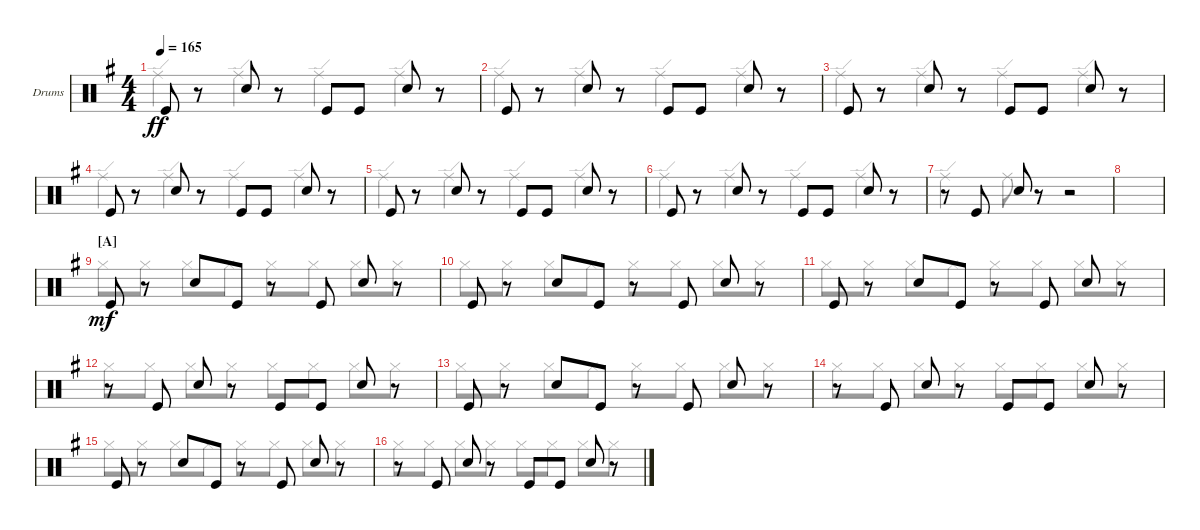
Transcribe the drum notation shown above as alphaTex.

\defaultSystemsLayout 4
\bracketExtendMode groupsimilarinstruments
\firstSystemTrackNameOrientation horizontal
\otherSystemsTrackNameOrientation horizontal
\track ("Fabrizio Moretti" "Drums") {instrument percussion}
\staff {score}
\articulation defaults
\voice
\ts (4 4)
\tempo 165
\clef neutral
\ks g "Kick (hit)".8{dy ff}
r.8 "Snare (hit) 2".8 r.8 "Kick (hit)".8 "Kick (hit)".8 "Snare (hit) 2".8 r.8 |
"Kick (hit)".8 r.8 "Snare (hit) 2".8 r.8 "Kick (hit)".8 "Kick (hit)".8 "Snare (hit) 2".8 r.8 |
"Kick (hit)".8 r.8 "Snare (hit) 2".8 r.8 "Kick (hit)".8 "Kick (hit)".8 "Snare (hit) 2".8 r.8 |
"Kick (hit)".8 r.8 "Snare (hit) 2".8 r.8 "Kick (hit)".8 "Kick (hit)".8 "Snare (hit) 2".8 r.8 |
"Kick (hit)".8 r.8 "Snare (hit) 2".8 r.8 "Kick (hit)".8 "Kick (hit)".8 "Snare (hit) 2".8 r.8 |
"Kick (hit)".8 r.8 "Snare (hit) 2".8 r.8 "Kick (hit)".8 "Kick (hit)".8 "Snare (hit) 2".8 r.8 |
r.8 "Kick (hit)".8 "Snare (hit) 2".8 r.8 r.2 |
|
\section ("A" "")
"Kick (hit)".8{dy mf} r.8 "Snare (hit) 2".8 "Kick (hit)".8 r.8 "Kick (hit)".8 "Snare (hit) 2".8 r.8 |
"Kick (hit)".8 r.8 "Snare (hit) 2".8 "Kick (hit)".8 r.8 "Kick (hit)".8 "Snare (hit) 2".8 r.8 |
"Kick (hit)".8 r.8 "Snare (hit) 2".8 "Kick (hit)".8 r.8 "Kick (hit)".8 "Snare (hit) 2".8 r.8 |
r.8 "Kick (hit)".8 "Snare (hit) 2".8 r.8 "Kick (hit)".8 "Kick (hit)".8 "Snare (hit) 2".8 r.8 |
"Kick (hit)".8 r.8 "Snare (hit) 2".8 "Kick (hit)".8 r.8 "Kick (hit)".8 "Snare (hit) 2".8 r.8 |
r.8 "Kick (hit)".8 "Snare (hit) 2".8 r.8 "Kick (hit)".8 "Kick (hit)".8 "Snare (hit) 2".8 r.8 |
"Kick (hit)".8 r.8 "Snare (hit) 2".8 "Kick (hit)".8 r.8 "Kick (hit)".8 "Snare (hit) 2".8 r.8 |
r.8 "Kick (hit)".8 "Snare (hit) 2".8 r.8 "Kick (hit)".8 "Kick (hit)".8 "Snare (hit) 2".8 r.8
\voice
\clef neutral
\ottava regular
\simile none
\ks g "Ride (edge)".4{dy ff} "Ride (edge)".4 "Ride (edge)".4 "Ride (edge)".4
|
"Ride (edge)".4 "Ride (edge)".4 "Ride (edge)".4 "Ride (edge)".4 |
"Ride (edge)".4 "Ride (edge)".4 "Ride (edge)".4 "Ride (edge)".4 |
"Ride (edge)".4 "Ride (edge)".4 "Ride (edge)".4 "Ride (edge)".4 |
"Ride (edge)".4 "Ride (edge)".4 "Ride (edge)".4 "Ride (edge)".4 |
"Ride (edge)".4 "Ride (edge)".4 "Ride (edge)".4 "Ride (edge)".4 |
"Ride (edge)".4 "Ride (middle)".8 r.8 r.2 |
|
"Hi-Hat (closed)".8 "Hi-Hat (closed)".8 "Hi-Hat (closed)".8 "Hi-Hat (closed)".8 "Hi-Hat (closed)".8 "Hi-Hat (closed)".8 "Hi-Hat (closed)".8 "Hi-Hat (closed)".8 |
"Hi-Hat (closed)".8 "Hi-Hat (closed)".8 "Hi-Hat (closed)".8 "Hi-Hat (closed)".8 "Hi-Hat (closed)".8 "Hi-Hat (closed)".8 "Hi-Hat (closed)".8 "Hi-Hat (closed)".8 |
"Hi-Hat (closed)".8 "Hi-Hat (closed)".8 "Hi-Hat (closed)".8 "Hi-Hat (closed)".8 "Hi-Hat (closed)".8 "Hi-Hat (closed)".8 "Hi-Hat (closed)".8 "Hi-Hat (closed)".8 |
"Hi-Hat (closed)".8 "Hi-Hat (closed)".8 "Hi-Hat (closed)".8 "Hi-Hat (closed)".8 "Hi-Hat (closed)".8 "Hi-Hat (closed)".8 "Hi-Hat (closed)".8 "Hi-Hat (closed)".8 |
"Hi-Hat (closed)".8 "Hi-Hat (closed)".8 "Hi-Hat (closed)".8 "Hi-Hat (closed)".8 "Hi-Hat (closed)".8 "Hi-Hat (closed)".8 "Hi-Hat (closed)".8 "Hi-Hat (closed)".8 |
"Hi-Hat (closed)".8 "Hi-Hat (closed)".8 "Hi-Hat (closed)".8 "Hi-Hat (closed)".8 "Hi-Hat (closed)".8 "Hi-Hat (closed)".8 "Hi-Hat (closed)".8 "Hi-Hat (closed)".8 |
"Hi-Hat (closed)".8 "Hi-Hat (closed)".8 "Hi-Hat (closed)".8 "Hi-Hat (closed)".8 "Hi-Hat (closed)".8 "Hi-Hat (closed)".8 "Hi-Hat (closed)".8 "Hi-Hat (closed)".8 |
"Hi-Hat (closed)".8 "Hi-Hat (closed)".8 "Hi-Hat (closed)".8 "Hi-Hat (closed)".8 "Hi-Hat (closed)".8 "Hi-Hat (closed)".8 "Hi-Hat (closed)".8 "Hi-Hat (closed)".8
